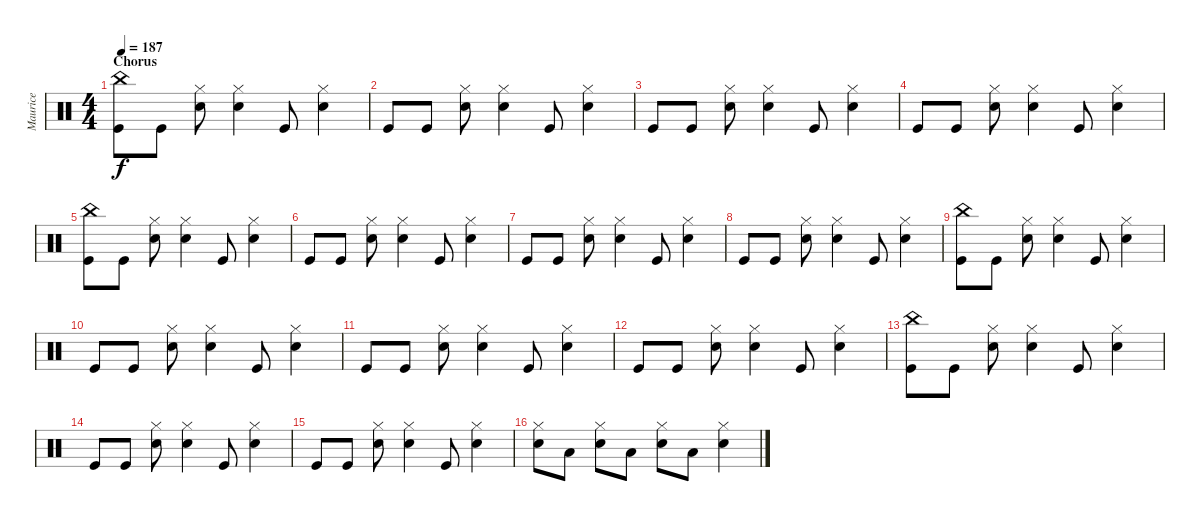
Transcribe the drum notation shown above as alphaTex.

\track ("Maurice" "Maurice") {instrument percussion}
\staff {score}
\articulation defaults
\ts (4 4)
\section ("" "Chorus")
\tempo 187
\clef neutral
\ks c
("China (hit)" "Kick (hit)").8{dy f} "Kick (hit)".8 ("Hi-Hat (closed)" "Snare (hit) 2").8 ("Hi-Hat (closed)" "Snare (hit) 2").4 "Kick (hit)".8 ("Hi-Hat (closed)" "Snare (hit) 2").4 |
"Kick (hit)".8 "Kick (hit)".8 ("Hi-Hat (closed)" "Snare (hit) 2").8 ("Hi-Hat (closed)" "Snare (hit) 2").4 "Kick (hit)".8 ("Hi-Hat (closed)" "Snare (hit) 2").4 |
"Kick (hit)".8 "Kick (hit)".8 ("Hi-Hat (closed)" "Snare (hit) 2").8 ("Hi-Hat (closed)" "Snare (hit) 2").4 "Kick (hit)".8 ("Hi-Hat (closed)" "Snare (hit) 2").4 |
"Kick (hit)".8 "Kick (hit)".8 ("Hi-Hat (closed)" "Snare (hit) 2").8 ("Hi-Hat (closed)" "Snare (hit) 2").4 "Kick (hit)".8 ("Hi-Hat (closed)" "Snare (hit) 2").4 |
("China (hit)" "Kick (hit)").8 "Kick (hit)".8 ("Hi-Hat (closed)" "Snare (hit) 2").8 ("Hi-Hat (closed)" "Snare (hit) 2").4 "Kick (hit)".8 ("Hi-Hat (closed)" "Snare (hit) 2").4 |
"Kick (hit)".8 "Kick (hit)".8 ("Hi-Hat (closed)" "Snare (hit) 2").8 ("Hi-Hat (closed)" "Snare (hit) 2").4 "Kick (hit)".8 ("Hi-Hat (closed)" "Snare (hit) 2").4 |
"Kick (hit)".8 "Kick (hit)".8 ("Hi-Hat (closed)" "Snare (hit) 2").8 ("Hi-Hat (closed)" "Snare (hit) 2").4 "Kick (hit)".8 ("Hi-Hat (closed)" "Snare (hit) 2").4 |
"Kick (hit)".8 "Kick (hit)".8 ("Hi-Hat (closed)" "Snare (hit) 2").8 ("Hi-Hat (closed)" "Snare (hit) 2").4 "Kick (hit)".8 ("Hi-Hat (closed)" "Snare (hit) 2").4 |
("China (hit)" "Kick (hit)").8 "Kick (hit)".8 ("Hi-Hat (closed)" "Snare (hit) 2").8 ("Hi-Hat (closed)" "Snare (hit) 2").4 "Kick (hit)".8 ("Hi-Hat (closed)" "Snare (hit) 2").4 |
"Kick (hit)".8 "Kick (hit)".8 ("Hi-Hat (closed)" "Snare (hit) 2").8 ("Hi-Hat (closed)" "Snare (hit) 2").4 "Kick (hit)".8 ("Hi-Hat (closed)" "Snare (hit) 2").4 |
"Kick (hit)".8 "Kick (hit)".8 ("Hi-Hat (closed)" "Snare (hit) 2").8 ("Hi-Hat (closed)" "Snare (hit) 2").4 "Kick (hit)".8 ("Hi-Hat (closed)" "Snare (hit) 2").4 |
"Kick (hit)".8 "Kick (hit)".8 ("Hi-Hat (closed)" "Snare (hit) 2").8 ("Hi-Hat (closed)" "Snare (hit) 2").4 "Kick (hit)".8 ("Hi-Hat (closed)" "Snare (hit) 2").4 |
("China (hit)" "Kick (hit)").8 "Kick (hit)".8 ("Hi-Hat (closed)" "Snare (hit) 2").8 ("Hi-Hat (closed)" "Snare (hit) 2").4 "Kick (hit)".8 ("Hi-Hat (closed)" "Snare (hit) 2").4 |
"Kick (hit)".8 "Kick (hit)".8 ("Hi-Hat (closed)" "Snare (hit) 2").8 ("Hi-Hat (closed)" "Snare (hit) 2").4 "Kick (hit)".8 ("Hi-Hat (closed)" "Snare (hit) 2").4 |
"Kick (hit)".8 "Kick (hit)".8 ("Hi-Hat (closed)" "Snare (hit) 2").8 ("Hi-Hat (closed)" "Snare (hit) 2").4 "Kick (hit)".8 ("Hi-Hat (closed)" "Snare (hit) 2").4 |
("Hi-Hat (closed)" "Snare (hit) 2").8 "Low Tom (hit)".8 ("Hi-Hat (closed)" "Snare (hit) 2").8 "Low Tom (hit)".8 ("Hi-Hat (closed)" "Snare (hit) 2").8 "Low Tom (hit)".8 ("Hi-Hat (closed)" "Snare (hit) 2").4
